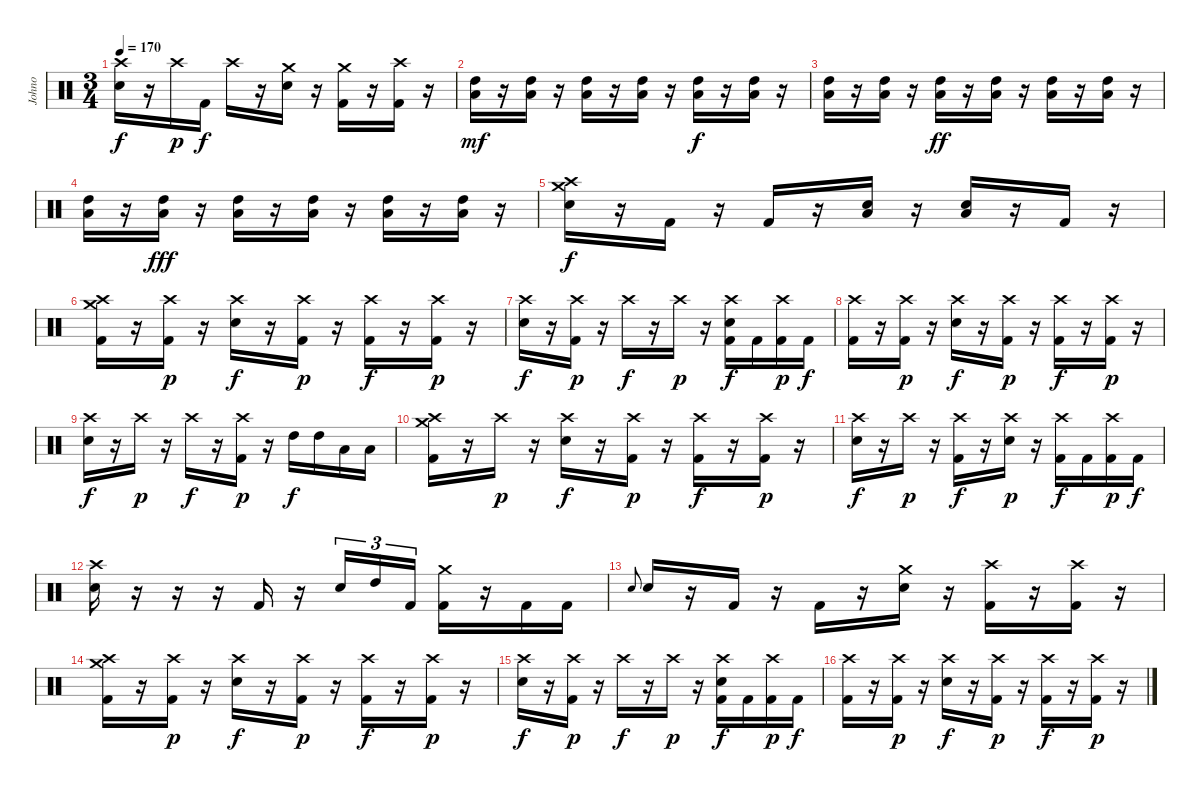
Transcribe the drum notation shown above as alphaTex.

\track ("Johno" "Johno") {instrument percussion}
\staff {score}
\articulation defaults
\ts (3 4)
\tempo 170
\clef neutral
\ks c
("Crash high (hit)" "Electric Snare (hit)").16{dy f} r.16 "Crash high (hit)".16{dy p} "Kick (hit) 2".16{dy f} "Crash high (hit)".16 r.16 ("Crash medium (hit)" "Electric Snare (hit)").16 r.16 ("Crash medium (hit)" "Kick (hit) 2").16 r.16 ("Crash high (hit)" "Kick (hit) 2").16 r.16 |
("Low Floor Tom (hit)" "High Tom (hit)").16{dy mf} r.16 ("Low Floor Tom (hit)" "High Tom (hit)").16 r.16 ("Low Floor Tom (hit)" "High Tom (hit)").16 r.16 ("Low Floor Tom (hit)" "High Tom (hit)").16 r.16 ("Low Floor Tom (hit)" "High Tom (hit)").16{dy f} r.16 ("Low Floor Tom (hit)" "High Tom (hit)").16 r.16 |
("Low Floor Tom (hit)" "High Tom (hit)").16 r.16 ("Low Floor Tom (hit)" "High Tom (hit)").16 r.16 ("Low Floor Tom (hit)" "High Tom (hit)").16{dy ff} r.16 ("Low Floor Tom (hit)" "High Tom (hit)").16 r.16 ("Low Floor Tom (hit)" "High Tom (hit)").16 r.16 ("Low Floor Tom (hit)" "High Tom (hit)").16 r.16 |
("Low Floor Tom (hit)" "High Tom (hit)").16 r.16 ("Low Floor Tom (hit)" "High Tom (hit)").16{dy fff} r.16 ("Low Floor Tom (hit)" "High Tom (hit)").16 r.16 ("Low Floor Tom (hit)" "High Tom (hit)").16 r.16 ("Low Floor Tom (hit)" "High Tom (hit)").16 r.16 ("Low Floor Tom (hit)" "High Tom (hit)").16 r.16 |
("Crash high (hit)" "Crash medium (hit)" "Electric Snare (hit)").16{dy f} r.16 "Kick (hit) 2".16 r.16 "Kick (hit) 2".16 r.16 ("Low Floor Tom (hit)" "Electric Snare (hit)").16 r.16 ("Low Floor Tom (hit)" "Electric Snare (hit)").16 r.16 "Kick (hit) 2".16 r.16 |
("Crash medium (hit)" "Crash high (hit)" "Kick (hit) 2").16 r.16 ("Crash high (hit)" "Kick (hit) 2").16{dy p} r.16 ("Crash high (hit)" "Electric Snare (hit)").16{dy f} r.16 ("Crash high (hit)" "Kick (hit) 2").16{dy p} r.16 ("Crash high (hit)" "Kick (hit) 2").16{dy f} r.16 ("Crash high (hit)" "Kick (hit) 2").16{dy p} r.16 |
("Crash high (hit)" "Electric Snare (hit)").16{dy f} r.16 ("Crash high (hit)" "Kick (hit) 2").16{dy p} r.16 "Crash high (hit)".16{dy f} r.16 "Crash high (hit)".16{dy p} r.16 ("Crash high (hit)" "Electric Snare (hit)" "Kick (hit) 2").16{dy f} "Kick (hit) 2".16 ("Crash high (hit)" "Kick (hit) 2").16{dy p} "Kick (hit) 2".16{dy f} |
("Crash high (hit)" "Kick (hit) 2").16 r.16 ("Crash high (hit)" "Kick (hit) 2").16{dy p} r.16 ("Crash high (hit)" "Electric Snare (hit)").16{dy f} r.16 ("Crash high (hit)" "Kick (hit) 2").16{dy p} r.16 ("Crash high (hit)" "Kick (hit) 2").16{dy f} r.16 ("Crash high (hit)" "Kick (hit) 2").16{dy p} r.16 |
("Crash high (hit)" "Electric Snare (hit)").16{dy f} r.16 "Crash high (hit)".16{dy p} r.16 "Crash high (hit)".16{dy f} r.16 ("Crash high (hit)" "Kick (hit) 2").16{dy p} r.16 "High Tom (hit)".16{dy f} "High Tom (hit)".16 "Low Floor Tom (hit)".16 "Low Floor Tom (hit)".16 |
("Crash medium (hit)" "Crash high (hit)" "Kick (hit) 2").16 r.16 "Crash high (hit)".16{dy p} r.16 ("Crash high (hit)" "Electric Snare (hit)").16{dy f} r.16 ("Crash high (hit)" "Kick (hit) 2").16{dy p} r.16 ("Crash high (hit)" "Kick (hit) 2").16{dy f} r.16 ("Crash high (hit)" "Kick (hit) 2").16{dy p} r.16 |
("Crash high (hit)" "Electric Snare (hit)").16{dy f} r.16 "Crash high (hit)".16{dy p} r.16 ("Crash high (hit)" "Kick (hit) 2").16{dy f} r.16 ("Crash high (hit)" "Electric Snare (hit)").16{dy p} r.16 ("Crash high (hit)" "Kick (hit) 2").16{dy f} "Kick (hit) 2".16 ("Crash high (hit)" "Kick (hit) 2").16{dy p} "Kick (hit) 2".16{dy f} |
("Crash high (hit)" "Electric Snare (hit)").16 r.16 r.16 r.16 "Kick (hit) 2".16 r.16 "Electric Snare (hit)".16{tu (3 2)} "High Tom (hit)".16{tu (3 2)} "Kick (hit) 2".16{tu (3 2)} ("Crash medium (hit)" "Kick (hit) 2").16 r.16 "Kick (hit) 2".16 "Kick (hit) 2".16 |
"Electric Snare (hit)".8{gr onbeat} "Electric Snare (hit)".16 r.16 "Kick (hit) 2".16 r.16 "Kick (hit) 2".16 r.16 ("Crash medium (hit)" "Electric Snare (hit)").16 r.16 ("Crash high (hit)" "Kick (hit) 2").16 r.16 ("Crash high (hit)" "Kick (hit) 2").16 r.16 |
("Crash medium (hit)" "Crash high (hit)" "Kick (hit) 2").16 r.16 ("Crash high (hit)" "Kick (hit) 2").16{dy p} r.16 ("Crash high (hit)" "Electric Snare (hit)").16{dy f} r.16 ("Crash high (hit)" "Kick (hit) 2").16{dy p} r.16 ("Crash high (hit)" "Kick (hit) 2").16{dy f} r.16 ("Crash high (hit)" "Kick (hit) 2").16{dy p} r.16 |
("Crash high (hit)" "Electric Snare (hit)").16{dy f} r.16 ("Crash high (hit)" "Kick (hit) 2").16{dy p} r.16 "Crash high (hit)".16{dy f} r.16 "Crash high (hit)".16{dy p} r.16 ("Crash high (hit)" "Electric Snare (hit)" "Kick (hit) 2").16{dy f} "Kick (hit) 2".16 ("Crash high (hit)" "Kick (hit) 2").16{dy p} "Kick (hit) 2".16{dy f} |
("Crash high (hit)" "Kick (hit) 2").16 r.16 ("Crash high (hit)" "Kick (hit) 2").16{dy p} r.16 ("Crash high (hit)" "Electric Snare (hit)").16{dy f} r.16 ("Crash high (hit)" "Kick (hit) 2").16{dy p} r.16 ("Crash high (hit)" "Kick (hit) 2").16{dy f} r.16 ("Crash high (hit)" "Kick (hit) 2").16{dy p} r.16
